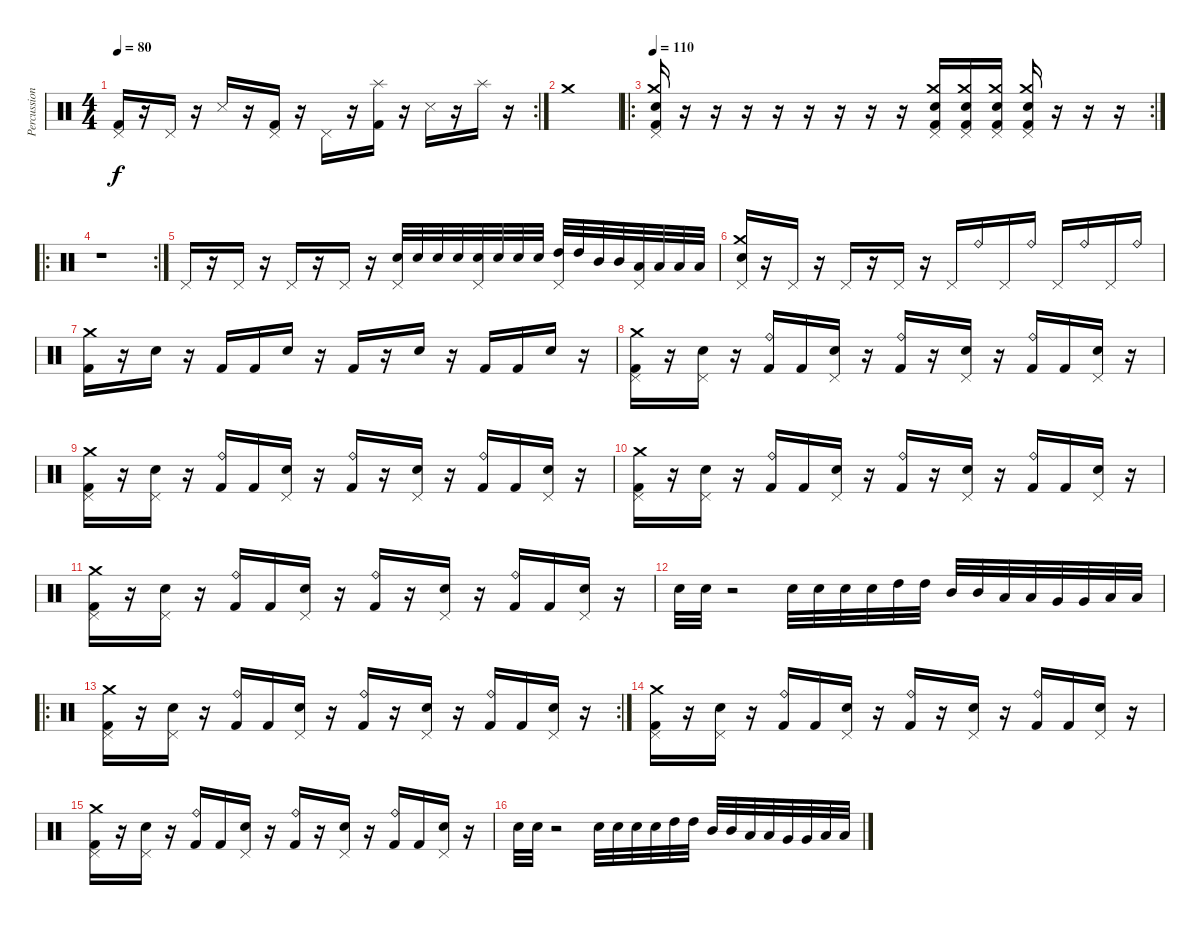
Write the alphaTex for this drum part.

\track ("Percussion" "Percussion") {instrument percussion}
\staff {score}
\articulation defaults
\rc 2
\ts (4 4)
\tempo 80
\clef neutral
\ks c
("Pedal Hi-Hat (hit)" "Kick (hit) 2").16{dy f} r.16 "Pedal Hi-Hat (hit)".16 r.16 "Snare (side stick) 3".16 r.16 ("Pedal Hi-Hat (hit)" "Kick (hit) 2").16 r.16 "Pedal Hi-Hat (hit)".16 r.16 ("Splash (hit)" "Kick (hit) 2").16 r.16 "Snare (side stick) 3".16 r.16 "Splash (hit)".16 r.16 |
"Crash medium (hit)".1 |
\ro
\rc 2
\tempo 110
("Pedal Hi-Hat (hit)" "Crash medium (hit)" "Snare (hit) 2" "Kick (hit) 2").16 r.16 r.16 r.16 r.16 r.16 r.16 r.16 r.16 ("Pedal Hi-Hat (hit)" "Crash medium (hit)" "Snare (hit) 2" "Kick (hit) 2").16 ("Pedal Hi-Hat (hit)" "Crash medium (hit)" "Snare (hit) 2" "Kick (hit) 2").16 ("Pedal Hi-Hat (hit)" "Crash medium (hit)" "Snare (hit) 2" "Kick (hit) 2").16 ("Pedal Hi-Hat (hit)" "Crash medium (hit)" "Snare (hit) 2" "Kick (hit) 2").16 r.16 r.16 r.16 |
\ro
\rc 2
r.1 |
"Pedal Hi-Hat (hit)".16 r.16 "Pedal Hi-Hat (hit)".16 r.16 "Pedal Hi-Hat (hit)".16 r.16 "Pedal Hi-Hat (hit)".16 r.16 ("Pedal Hi-Hat (hit)" "Snare (hit) 2").32 "Snare (hit) 2".32 "Snare (hit) 2".32 "Snare (hit) 2".32 ("Pedal Hi-Hat (hit)" "Electric Snare (hit)").32 "Electric Snare (hit)".32 "Electric Snare (hit)".32 "Electric Snare (hit)".32 ("Pedal Hi-Hat (hit)" "High Tom (hit)").32 "High Tom (hit)".32 "Mid Tom (hit)".32 "Mid Tom (hit)".32 ("Pedal Hi-Hat (hit)" "Low Tom (hit)").32 "Low Tom (hit)".32 "Low Floor Tom (hit)".32 "Low Floor Tom (hit)".32 |
("Pedal Hi-Hat (hit)" "Crash medium (hit)" "Snare (hit) 2").16 r.16 "Pedal Hi-Hat (hit)".16 r.16 "Pedal Hi-Hat (hit)".16 r.16 "Pedal Hi-Hat (hit)".16 r.16 "Pedal Hi-Hat (hit)".16 "Ride (bell)".16 "Pedal Hi-Hat (hit)".16 "Ride (bell)".16 "Pedal Hi-Hat (hit)".16 "Ride (bell)".16 "Pedal Hi-Hat (hit)".16 "Ride (bell)".16 |
("Crash medium (hit)" "Kick (hit) 2").16 r.16 "Snare (hit) 2".16 r.16 "Kick (hit) 2".16 "Kick (hit) 2".16 "Snare (hit) 2".16 r.16 "Kick (hit) 2".16 r.16 "Snare (hit) 2".16 r.16 "Kick (hit) 2".16 "Kick (hit) 2".16 "Snare (hit) 2".16 r.16 |
("Pedal Hi-Hat (hit)" "Crash medium (hit)" "Kick (hit) 2").16 r.16 ("Pedal Hi-Hat (hit)" "Snare (hit) 2").16 r.16 ("Ride (bell)" "Kick (hit) 2").16 "Kick (hit) 2".16 ("Pedal Hi-Hat (hit)" "Snare (hit) 2").16 r.16 ("Ride (bell)" "Kick (hit) 2").16 r.16 ("Pedal Hi-Hat (hit)" "Snare (hit) 2").16 r.16 ("Ride (bell)" "Kick (hit) 2").16 "Kick (hit) 2".16 ("Pedal Hi-Hat (hit)" "Snare (hit) 2").16 r.16 |
("Pedal Hi-Hat (hit)" "Crash medium (hit)" "Kick (hit) 2").16 r.16 ("Pedal Hi-Hat (hit)" "Snare (hit) 2").16 r.16 ("Ride (bell)" "Kick (hit) 2").16 "Kick (hit) 2".16 ("Pedal Hi-Hat (hit)" "Snare (hit) 2").16 r.16 ("Ride (bell)" "Kick (hit) 2").16 r.16 ("Pedal Hi-Hat (hit)" "Snare (hit) 2").16 r.16 ("Ride (bell)" "Kick (hit) 2").16 "Kick (hit) 2".16 ("Pedal Hi-Hat (hit)" "Snare (hit) 2").16 r.16 |
("Pedal Hi-Hat (hit)" "Crash medium (hit)" "Kick (hit) 2").16 r.16 ("Pedal Hi-Hat (hit)" "Snare (hit) 2").16 r.16 ("Ride (bell)" "Kick (hit) 2").16 "Kick (hit) 2".16 ("Pedal Hi-Hat (hit)" "Snare (hit) 2").16 r.16 ("Ride (bell)" "Kick (hit) 2").16 r.16 ("Pedal Hi-Hat (hit)" "Snare (hit) 2").16 r.16 ("Ride (bell)" "Kick (hit) 2").16 "Kick (hit) 2".16 ("Pedal Hi-Hat (hit)" "Snare (hit) 2").16 r.16 |
("Pedal Hi-Hat (hit)" "Crash medium (hit)" "Kick (hit) 2").16 r.16 ("Pedal Hi-Hat (hit)" "Snare (hit) 2").16 r.16 ("Ride (bell)" "Kick (hit) 2").16 "Kick (hit) 2".16 ("Pedal Hi-Hat (hit)" "Snare (hit) 2").16 r.16 ("Ride (bell)" "Kick (hit) 2").16 r.16 ("Pedal Hi-Hat (hit)" "Snare (hit) 2").16 r.16 ("Ride (bell)" "Kick (hit) 2").16 "Kick (hit) 2".16 ("Pedal Hi-Hat (hit)" "Snare (hit) 2").16 r.16 |
"Snare (hit) 2".32 "Snare (hit) 2".32 r.2 "Snare (hit) 2".32 "Snare (hit) 2".32 "Electric Snare (hit)".32 "Electric Snare (hit)".32 "High Tom (hit)".32 "High Tom (hit)".32 "Mid Tom (hit)".32 "Mid Tom (hit)".32 "Low Tom (hit)".32 "Low Tom (hit)".32 "Very Low Tom (hit)".32 "Very Low Tom (hit)".32 "Low Floor Tom (hit)".32 "Low Floor Tom (hit)".32 |
\ro
\rc 2
("Pedal Hi-Hat (hit)" "Crash medium (hit)" "Kick (hit) 2").16 r.16 ("Pedal Hi-Hat (hit)" "Snare (hit) 2").16 r.16 ("Ride (bell)" "Kick (hit) 2").16 "Kick (hit) 2".16 ("Pedal Hi-Hat (hit)" "Snare (hit) 2").16 r.16 ("Ride (bell)" "Kick (hit) 2").16 r.16 ("Pedal Hi-Hat (hit)" "Snare (hit) 2").16 r.16 ("Ride (bell)" "Kick (hit) 2").16 "Kick (hit) 2".16 ("Pedal Hi-Hat (hit)" "Snare (hit) 2").16 r.16 |
("Pedal Hi-Hat (hit)" "Crash medium (hit)" "Kick (hit) 2").16 r.16 ("Pedal Hi-Hat (hit)" "Snare (hit) 2").16 r.16 ("Ride (bell)" "Kick (hit) 2").16 "Kick (hit) 2".16 ("Pedal Hi-Hat (hit)" "Snare (hit) 2").16 r.16 ("Ride (bell)" "Kick (hit) 2").16 r.16 ("Pedal Hi-Hat (hit)" "Snare (hit) 2").16 r.16 ("Ride (bell)" "Kick (hit) 2").16 "Kick (hit) 2".16 ("Pedal Hi-Hat (hit)" "Snare (hit) 2").16 r.16 |
("Pedal Hi-Hat (hit)" "Crash medium (hit)" "Kick (hit) 2").16 r.16 ("Pedal Hi-Hat (hit)" "Snare (hit) 2").16 r.16 ("Ride (bell)" "Kick (hit) 2").16 "Kick (hit) 2".16 ("Pedal Hi-Hat (hit)" "Snare (hit) 2").16 r.16 ("Ride (bell)" "Kick (hit) 2").16 r.16 ("Pedal Hi-Hat (hit)" "Snare (hit) 2").16 r.16 ("Ride (bell)" "Kick (hit) 2").16 "Kick (hit) 2".16 ("Pedal Hi-Hat (hit)" "Snare (hit) 2").16 r.16 |
"Snare (hit) 2".32 "Snare (hit) 2".32 r.2 "Snare (hit) 2".32 "Snare (hit) 2".32 "Electric Snare (hit)".32 "Electric Snare (hit)".32 "High Tom (hit)".32 "High Tom (hit)".32 "Mid Tom (hit)".32 "Mid Tom (hit)".32 "Low Tom (hit)".32 "Low Tom (hit)".32 "Very Low Tom (hit)".32 "Very Low Tom (hit)".32 "Low Floor Tom (hit)".32 "Low Floor Tom (hit)".32
